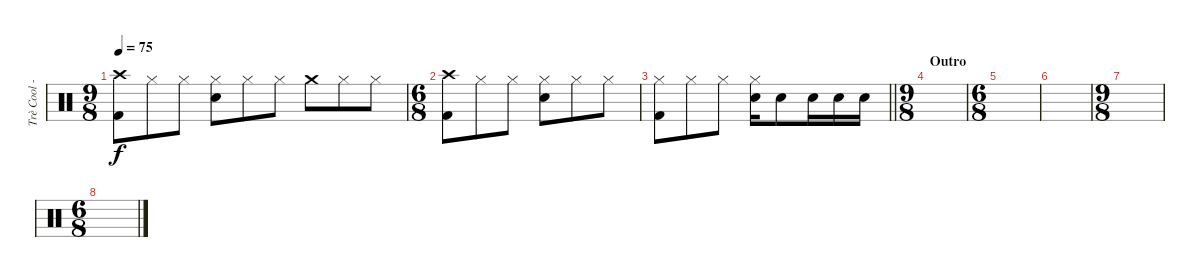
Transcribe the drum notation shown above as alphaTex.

\track ("Trè Cool - Drums" "Trè Cool -") {instrument percussion}
\staff {score}
\articulation defaults
\ts (9 8)
\tempo 75
\clef neutral
\ks c
("Crash high (hit)" "Kick (hit) 2").8{dy f} "Hi-Hat (closed)".8 "Hi-Hat (closed)".8 ("Hi-Hat (closed)" "Electric Snare (hit)").8 "Hi-Hat (closed)".8 "Hi-Hat (closed)".8 "Crash medium (hit)".8 "Hi-Hat (closed)".8 "Hi-Hat (closed)".8 |
\ts (6 8)
("Crash high (hit)" "Kick (hit) 2").8 "Hi-Hat (closed)".8 "Hi-Hat (closed)".8 ("Hi-Hat (closed)" "Electric Snare (hit)").8 "Hi-Hat (closed)".8 "Hi-Hat (closed)".8 |
\barLineRight lightlight
("Hi-Hat (closed)" "Kick (hit) 2").8 "Hi-Hat (closed)".8 "Hi-Hat (closed)".8 ("Hi-Hat (closed)" "Electric Snare (hit)").16 "Electric Snare (hit)".8 "Electric Snare (hit)".16 "Electric Snare (hit)".16 "Electric Snare (hit)".16 |
\ts (9 8)
\section ("" "Outro")
|
\ts (6 8)
|
|
\ts (9 8)
|
\ts (6 8)
